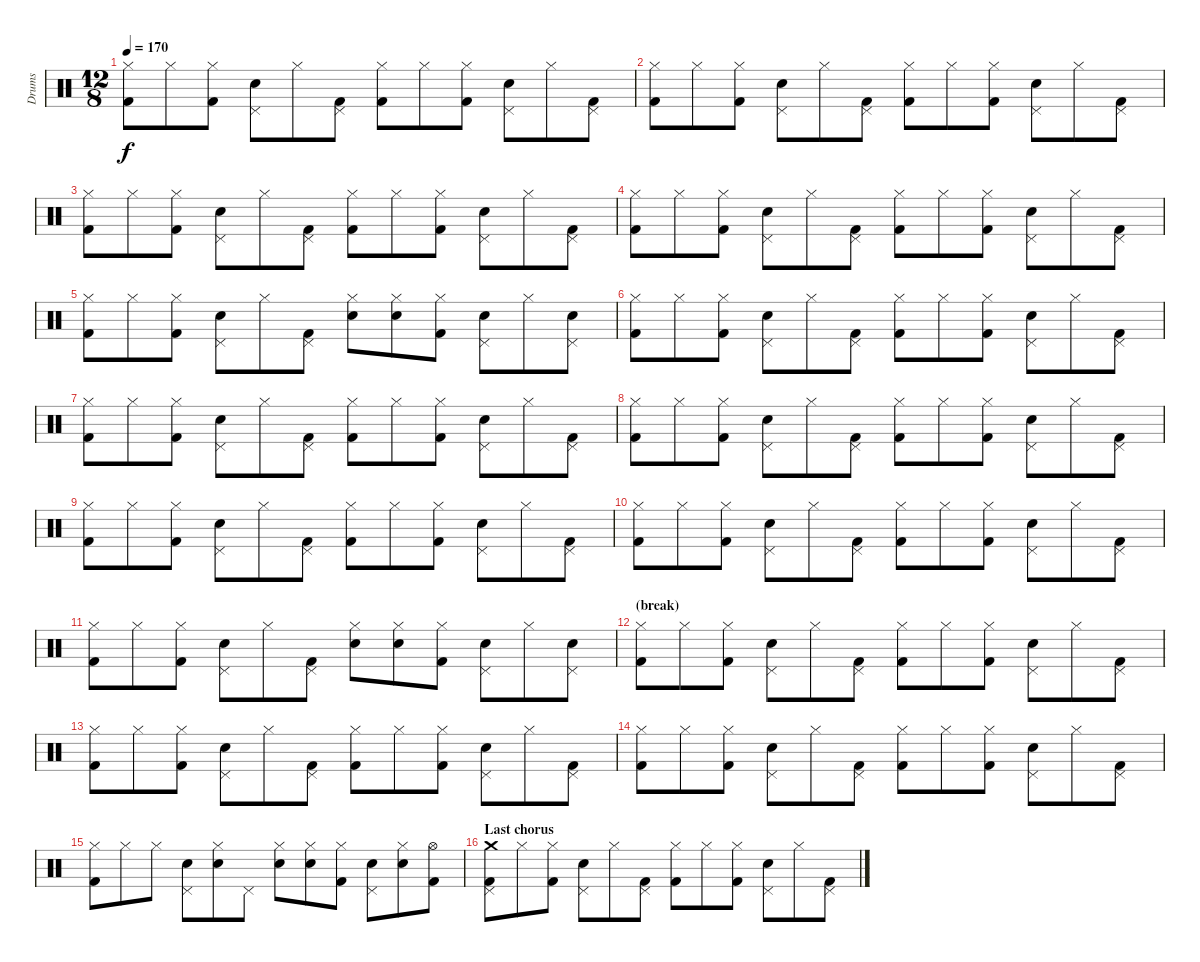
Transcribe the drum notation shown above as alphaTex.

\track ("Drums" "Drums") {instrument percussion}
\staff {score}
\articulation defaults
\ts (12 8)
\tempo 170
\clef neutral
\ks c
("Kick (hit) 2" "Hi-Hat (closed)").8{dy f} "Hi-Hat (closed)".8 ("Kick (hit) 2" "Hi-Hat (closed)").8 ("Snare (hit) 2" "Pedal Hi-Hat (hit)").8 "Hi-Hat (closed)".8 ("Kick (hit) 2" "Pedal Hi-Hat (hit)").8 ("Kick (hit) 2" "Hi-Hat (closed)").8 "Hi-Hat (closed)".8 ("Kick (hit) 2" "Hi-Hat (closed)").8 ("Snare (hit) 2" "Pedal Hi-Hat (hit)").8 "Hi-Hat (closed)".8 ("Kick (hit) 2" "Pedal Hi-Hat (hit)").8 |
("Kick (hit) 2" "Hi-Hat (closed)").8 "Hi-Hat (closed)".8 ("Kick (hit) 2" "Hi-Hat (closed)").8 ("Snare (hit) 2" "Pedal Hi-Hat (hit)").8 "Hi-Hat (closed)".8 ("Kick (hit) 2" "Pedal Hi-Hat (hit)").8 ("Kick (hit) 2" "Hi-Hat (closed)").8 "Hi-Hat (closed)".8 ("Kick (hit) 2" "Hi-Hat (closed)").8 ("Snare (hit) 2" "Pedal Hi-Hat (hit)").8 "Hi-Hat (closed)".8 ("Kick (hit) 2" "Pedal Hi-Hat (hit)").8 |
("Kick (hit) 2" "Hi-Hat (closed)").8 "Hi-Hat (closed)".8 ("Kick (hit) 2" "Hi-Hat (closed)").8 ("Snare (hit) 2" "Pedal Hi-Hat (hit)").8 "Hi-Hat (closed)".8 ("Kick (hit) 2" "Pedal Hi-Hat (hit)").8 ("Kick (hit) 2" "Hi-Hat (closed)").8 "Hi-Hat (closed)".8 ("Kick (hit) 2" "Hi-Hat (closed)").8 ("Snare (hit) 2" "Pedal Hi-Hat (hit)").8 "Hi-Hat (closed)".8 ("Kick (hit) 2" "Pedal Hi-Hat (hit)").8 |
("Kick (hit) 2" "Hi-Hat (closed)").8 "Hi-Hat (closed)".8 ("Kick (hit) 2" "Hi-Hat (closed)").8 ("Snare (hit) 2" "Pedal Hi-Hat (hit)").8 "Hi-Hat (closed)".8 ("Kick (hit) 2" "Pedal Hi-Hat (hit)").8 ("Kick (hit) 2" "Hi-Hat (closed)").8 "Hi-Hat (closed)".8 ("Kick (hit) 2" "Hi-Hat (closed)").8 ("Snare (hit) 2" "Pedal Hi-Hat (hit)").8 "Hi-Hat (closed)".8 ("Kick (hit) 2" "Pedal Hi-Hat (hit)").8 |
("Kick (hit) 2" "Hi-Hat (closed)").8 "Hi-Hat (closed)".8 ("Kick (hit) 2" "Hi-Hat (closed)").8 ("Snare (hit) 2" "Pedal Hi-Hat (hit)").8 "Hi-Hat (closed)".8 ("Kick (hit) 2" "Pedal Hi-Hat (hit)").8 ("Snare (hit) 2" "Hi-Hat (closed)").8 ("Snare (hit) 2" "Hi-Hat (closed)").8 ("Kick (hit) 2" "Hi-Hat (closed)").8 ("Snare (hit) 2" "Pedal Hi-Hat (hit)").8 "Hi-Hat (closed)".8 ("Snare (hit) 2" "Pedal Hi-Hat (hit)").8 |
("Kick (hit) 2" "Hi-Hat (closed)").8 "Hi-Hat (closed)".8 ("Kick (hit) 2" "Hi-Hat (closed)").8 ("Snare (hit) 2" "Pedal Hi-Hat (hit)").8 "Hi-Hat (closed)".8 ("Kick (hit) 2" "Pedal Hi-Hat (hit)").8 ("Kick (hit) 2" "Hi-Hat (closed)").8 "Hi-Hat (closed)".8 ("Kick (hit) 2" "Hi-Hat (closed)").8 ("Snare (hit) 2" "Pedal Hi-Hat (hit)").8 "Hi-Hat (closed)".8 ("Kick (hit) 2" "Pedal Hi-Hat (hit)").8 |
("Kick (hit) 2" "Hi-Hat (closed)").8 "Hi-Hat (closed)".8 ("Kick (hit) 2" "Hi-Hat (closed)").8 ("Snare (hit) 2" "Pedal Hi-Hat (hit)").8 "Hi-Hat (closed)".8 ("Kick (hit) 2" "Pedal Hi-Hat (hit)").8 ("Kick (hit) 2" "Hi-Hat (closed)").8 "Hi-Hat (closed)".8 ("Kick (hit) 2" "Hi-Hat (closed)").8 ("Snare (hit) 2" "Pedal Hi-Hat (hit)").8 "Hi-Hat (closed)".8 ("Kick (hit) 2" "Pedal Hi-Hat (hit)").8 |
("Kick (hit) 2" "Hi-Hat (closed)").8 "Hi-Hat (closed)".8 ("Kick (hit) 2" "Hi-Hat (closed)").8 ("Snare (hit) 2" "Pedal Hi-Hat (hit)").8 "Hi-Hat (closed)".8 ("Kick (hit) 2" "Pedal Hi-Hat (hit)").8 ("Kick (hit) 2" "Hi-Hat (closed)").8 "Hi-Hat (closed)".8 ("Kick (hit) 2" "Hi-Hat (closed)").8 ("Snare (hit) 2" "Pedal Hi-Hat (hit)").8 "Hi-Hat (closed)".8 ("Kick (hit) 2" "Pedal Hi-Hat (hit)").8 |
("Kick (hit) 2" "Hi-Hat (closed)").8 "Hi-Hat (closed)".8 ("Kick (hit) 2" "Hi-Hat (closed)").8 ("Snare (hit) 2" "Pedal Hi-Hat (hit)").8 "Hi-Hat (closed)".8 ("Kick (hit) 2" "Pedal Hi-Hat (hit)").8 ("Kick (hit) 2" "Hi-Hat (closed)").8 "Hi-Hat (closed)".8 ("Kick (hit) 2" "Hi-Hat (closed)").8 ("Snare (hit) 2" "Pedal Hi-Hat (hit)").8 "Hi-Hat (closed)".8 ("Kick (hit) 2" "Pedal Hi-Hat (hit)").8 |
("Kick (hit) 2" "Hi-Hat (closed)").8 "Hi-Hat (closed)".8 ("Kick (hit) 2" "Hi-Hat (closed)").8 ("Snare (hit) 2" "Pedal Hi-Hat (hit)").8 "Hi-Hat (closed)".8 ("Kick (hit) 2" "Pedal Hi-Hat (hit)").8 ("Kick (hit) 2" "Hi-Hat (closed)").8 "Hi-Hat (closed)".8 ("Kick (hit) 2" "Hi-Hat (closed)").8 ("Snare (hit) 2" "Pedal Hi-Hat (hit)").8 "Hi-Hat (closed)".8 ("Kick (hit) 2" "Pedal Hi-Hat (hit)").8 |
("Kick (hit) 2" "Hi-Hat (closed)").8 "Hi-Hat (closed)".8 ("Kick (hit) 2" "Hi-Hat (closed)").8 ("Snare (hit) 2" "Pedal Hi-Hat (hit)").8 "Hi-Hat (closed)".8 ("Kick (hit) 2" "Pedal Hi-Hat (hit)").8 ("Snare (hit) 2" "Hi-Hat (closed)").8 ("Snare (hit) 2" "Hi-Hat (closed)").8 ("Kick (hit) 2" "Hi-Hat (closed)").8 ("Snare (hit) 2" "Pedal Hi-Hat (hit)").8 "Hi-Hat (closed)".8 ("Snare (hit) 2" "Pedal Hi-Hat (hit)").8 |
\section ("" "(break)")
("Kick (hit) 2" "Hi-Hat (closed)").8 "Hi-Hat (closed)".8 ("Kick (hit) 2" "Hi-Hat (closed)").8 ("Snare (hit) 2" "Pedal Hi-Hat (hit)").8 "Hi-Hat (closed)".8 ("Kick (hit) 2" "Pedal Hi-Hat (hit)").8 ("Kick (hit) 2" "Hi-Hat (closed)").8 "Hi-Hat (closed)".8 ("Kick (hit) 2" "Hi-Hat (closed)").8 ("Snare (hit) 2" "Pedal Hi-Hat (hit)").8 "Hi-Hat (closed)".8 ("Kick (hit) 2" "Pedal Hi-Hat (hit)").8 |
("Kick (hit) 2" "Hi-Hat (closed)").8 "Hi-Hat (closed)".8 ("Kick (hit) 2" "Hi-Hat (closed)").8 ("Snare (hit) 2" "Pedal Hi-Hat (hit)").8 "Hi-Hat (closed)".8 ("Kick (hit) 2" "Pedal Hi-Hat (hit)").8 ("Kick (hit) 2" "Hi-Hat (closed)").8 "Hi-Hat (closed)".8 ("Kick (hit) 2" "Hi-Hat (closed)").8 ("Snare (hit) 2" "Pedal Hi-Hat (hit)").8 "Hi-Hat (closed)".8 ("Kick (hit) 2" "Pedal Hi-Hat (hit)").8 |
("Kick (hit) 2" "Hi-Hat (closed)").8 "Hi-Hat (closed)".8 ("Kick (hit) 2" "Hi-Hat (closed)").8 ("Snare (hit) 2" "Pedal Hi-Hat (hit)").8 "Hi-Hat (closed)".8 ("Kick (hit) 2" "Pedal Hi-Hat (hit)").8 ("Kick (hit) 2" "Hi-Hat (closed)").8 "Hi-Hat (closed)".8 ("Kick (hit) 2" "Hi-Hat (closed)").8 ("Snare (hit) 2" "Pedal Hi-Hat (hit)").8 "Hi-Hat (closed)".8 ("Kick (hit) 2" "Pedal Hi-Hat (hit)").8 |
("Kick (hit) 2" "Hi-Hat (closed)").8 "Hi-Hat (closed)".8 "Hi-Hat (closed)".8 ("Snare (hit) 2" "Pedal Hi-Hat (hit)").8 ("Snare (hit) 2" "Hi-Hat (closed)").8 "Pedal Hi-Hat (hit)".8 ("Snare (hit) 2" "Hi-Hat (closed)").8 ("Snare (hit) 2" "Hi-Hat (closed)").8 ("Kick (hit) 2" "Hi-Hat (closed)").8 ("Snare (hit) 2" "Pedal Hi-Hat (hit)").8 ("Snare (hit) 2" "Hi-Hat (closed)").8 ("Kick (hit) 2" "Hi-Hat (open)").8 |
\section ("" "Last chorus")
("Kick (hit) 2" "Crash medium (hit)" "Pedal Hi-Hat (hit)").8 "Hi-Hat (closed)".8 ("Kick (hit) 2" "Hi-Hat (closed)").8 ("Snare (hit) 2" "Pedal Hi-Hat (hit)").8 "Hi-Hat (closed)".8 ("Kick (hit) 2" "Pedal Hi-Hat (hit)").8 ("Kick (hit) 2" "Hi-Hat (closed)").8 "Hi-Hat (closed)".8 ("Kick (hit) 2" "Hi-Hat (closed)").8 ("Snare (hit) 2" "Pedal Hi-Hat (hit)").8 "Hi-Hat (closed)".8 ("Kick (hit) 2" "Pedal Hi-Hat (hit)").8
